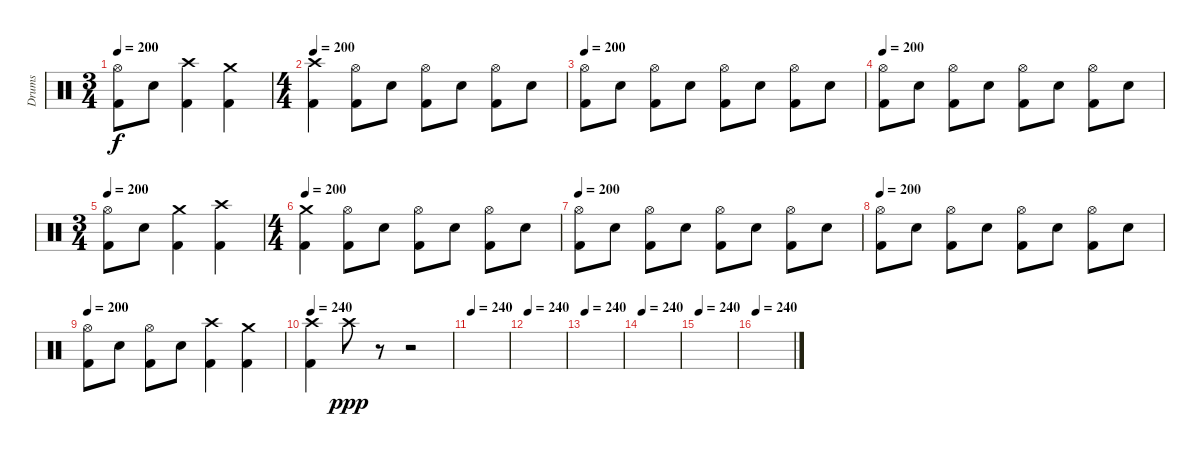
\track ("Drums" "Drums") {instrument percussion}
\staff {score}
\articulation defaults
\ts (3 4)
\tempo 200
\clef neutral
\ks c
("Hi-Hat (open)" "Kick (hit) 2").8{dy f} "Electric Snare (hit)".8 ("Crash high (hit)" "Kick (hit) 2").4 ("Crash medium (hit)" "Kick (hit) 2").4 |
\ts (4 4)
\tempo 200
("Crash high (hit)" "Kick (hit) 2").4 ("Hi-Hat (open)" "Kick (hit) 2").8 "Electric Snare (hit)".8 ("Hi-Hat (open)" "Kick (hit) 2").8 "Electric Snare (hit)".8 ("Hi-Hat (open)" "Kick (hit) 2").8 "Electric Snare (hit)".8 |
\tempo 200
("Hi-Hat (open)" "Kick (hit) 2").8 "Electric Snare (hit)".8 ("Hi-Hat (open)" "Kick (hit) 2").8 "Electric Snare (hit)".8 ("Hi-Hat (open)" "Kick (hit) 2").8 "Electric Snare (hit)".8 ("Hi-Hat (open)" "Kick (hit) 2").8 "Electric Snare (hit)".8 |
\tempo 200
("Hi-Hat (open)" "Kick (hit) 2").8 "Electric Snare (hit)".8 ("Hi-Hat (open)" "Kick (hit) 2").8 "Electric Snare (hit)".8 ("Hi-Hat (open)" "Kick (hit) 2").8 "Electric Snare (hit)".8 ("Hi-Hat (open)" "Kick (hit) 2").8 "Electric Snare (hit)".8 |
\ts (3 4)
\tempo 200
("Hi-Hat (open)" "Kick (hit) 2").8 "Electric Snare (hit)".8 ("Crash medium (hit)" "Kick (hit) 2").4 ("Crash high (hit)" "Kick (hit) 2").4 |
\ts (4 4)
\tempo 200
("Crash medium (hit)" "Kick (hit) 2").4 ("Hi-Hat (open)" "Kick (hit) 2").8 "Electric Snare (hit)".8 ("Hi-Hat (open)" "Kick (hit) 2").8 "Electric Snare (hit)".8 ("Hi-Hat (open)" "Kick (hit) 2").8 "Electric Snare (hit)".8 |
\tempo 200
("Hi-Hat (open)" "Kick (hit) 2").8 "Electric Snare (hit)".8 ("Hi-Hat (open)" "Kick (hit) 2").8 "Electric Snare (hit)".8 ("Hi-Hat (open)" "Kick (hit) 2").8 "Electric Snare (hit)".8 ("Hi-Hat (open)" "Kick (hit) 2").8 "Electric Snare (hit)".8 |
\tempo 200
("Hi-Hat (open)" "Kick (hit) 2").8 "Electric Snare (hit)".8 ("Hi-Hat (open)" "Kick (hit) 2").8 "Electric Snare (hit)".8 ("Hi-Hat (open)" "Kick (hit) 2").8 "Electric Snare (hit)".8 ("Hi-Hat (open)" "Kick (hit) 2").8 "Electric Snare (hit)".8 |
\tempo 200
("Hi-Hat (open)" "Kick (hit) 2").8 "Electric Snare (hit)".8 ("Hi-Hat (open)" "Kick (hit) 2").8 "Electric Snare (hit)".8 ("Crash high (hit)" "Kick (hit) 2").4 ("Crash medium (hit)" "Kick (hit) 2").4 |
\tempo 240
("Crash high (hit)" "Kick (hit) 2").4 "Crash high (hit)".8{dy ppp} r.8 r.2 |
\tempo 240
|
\tempo 240
|
\tempo 240
|
\tempo 240
|
\tempo 240
|
\tempo 240
